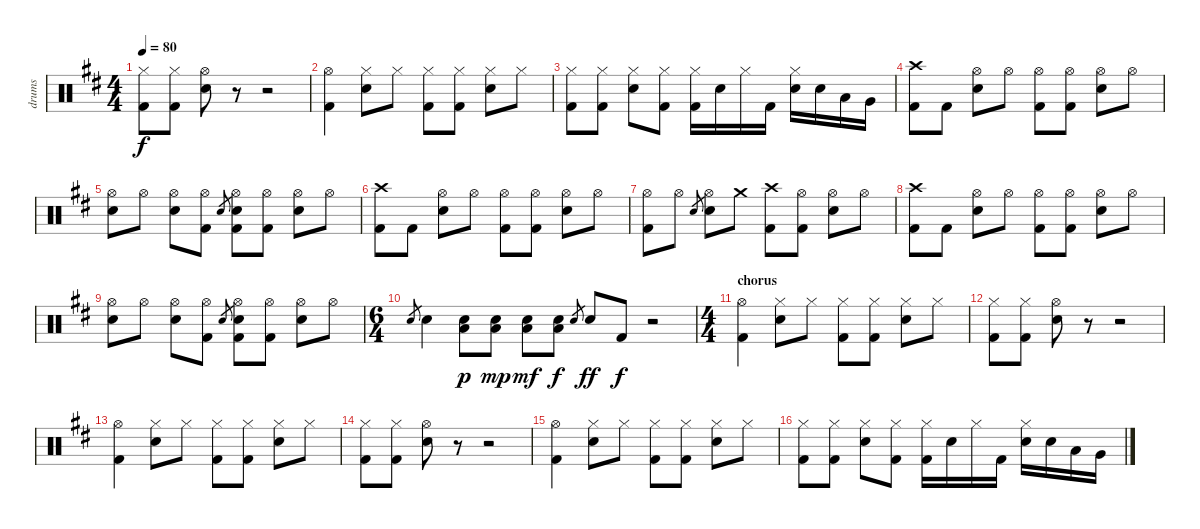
\track ("drums" "drums") {instrument percussion}
\staff {score}
\articulation defaults
\ts (4 4)
\tempo 80
\clef neutral
\ks bminor
("Hi-Hat (closed)" "Kick (hit) 2").8{dy f} ("Hi-Hat (closed)" "Kick (hit) 2").8 ("Hi-Hat (open)" "Electric Snare (hit)").8 r.8 r.2 |
("Hi-Hat (open)" "Kick (hit) 2").4 ("Hi-Hat (closed)" "Electric Snare (hit)").8 "Hi-Hat (closed)".8 ("Hi-Hat (closed)" "Kick (hit) 2").8 ("Hi-Hat (closed)" "Kick (hit) 2").8 ("Hi-Hat (closed)" "Electric Snare (hit)").8 "Hi-Hat (closed)".8 |
("Hi-Hat (closed)" "Kick (hit) 2").8 ("Hi-Hat (closed)" "Kick (hit) 2").8 ("Hi-Hat (closed)" "Electric Snare (hit)").8 ("Hi-Hat (closed)" "Kick (hit) 2").8 ("Hi-Hat (closed)" "Kick (hit) 2").16 "Electric Snare (hit)".16 "Hi-Hat (closed)".16 "Kick (hit) 2".16 ("Hi-Hat (closed)" "Electric Snare (hit)").16 "Electric Snare (hit)".16 "Low Tom (hit)".16 "Very Low Tom (hit)".16 |
("Crash high (hit)" "Kick (hit) 2").8 "Kick (hit) 2".8 ("Hi-Hat (open)" "Electric Snare (hit)").8 "Hi-Hat (open)".8 ("Hi-Hat (open)" "Kick (hit) 2").8 ("Hi-Hat (open)" "Kick (hit) 2").8 ("Hi-Hat (open)" "Electric Snare (hit)").8 "Hi-Hat (open)".8 |
("Hi-Hat (open)" "Electric Snare (hit)").8 "Hi-Hat (open)".8 ("Hi-Hat (open)" "Electric Snare (hit)").8 ("Hi-Hat (open)" "Kick (hit) 2").8 "Electric Snare (hit)".8{gr} ("Hi-Hat (open)" "Electric Snare (hit)" "Kick (hit) 2").8 ("Hi-Hat (open)" "Kick (hit) 2").8 ("Hi-Hat (open)" "Electric Snare (hit)").8 "Hi-Hat (open)".8 |
("Crash high (hit)" "Kick (hit) 2").8 "Kick (hit) 2".8 ("Hi-Hat (open)" "Electric Snare (hit)").8 "Hi-Hat (open)".8 ("Hi-Hat (open)" "Kick (hit) 2").8 ("Hi-Hat (open)" "Kick (hit) 2").8 ("Hi-Hat (open)" "Electric Snare (hit)").8 "Hi-Hat (open)".8 |
("Hi-Hat (open)" "Kick (hit) 2").8 "Hi-Hat (open)".8 "Electric Snare (hit)".8{gr} ("Hi-Hat (open)" "Electric Snare (hit)").8 "Crash medium (hit)".8 ("Crash high (hit)" "Kick (hit) 2").8 ("Hi-Hat (open)" "Kick (hit) 2").8 ("Hi-Hat (open)" "Electric Snare (hit)").8 "Hi-Hat (open)".8 |
("Crash high (hit)" "Kick (hit) 2").8 "Kick (hit) 2".8 ("Hi-Hat (open)" "Electric Snare (hit)").8 "Hi-Hat (open)".8 ("Hi-Hat (open)" "Kick (hit) 2").8 ("Hi-Hat (open)" "Kick (hit) 2").8 ("Hi-Hat (open)" "Electric Snare (hit)").8 "Hi-Hat (open)".8 |
("Hi-Hat (open)" "Electric Snare (hit)").8 "Hi-Hat (open)".8 ("Hi-Hat (open)" "Electric Snare (hit)").8 ("Hi-Hat (open)" "Kick (hit) 2").8 "Electric Snare (hit)".8{gr} ("Hi-Hat (open)" "Electric Snare (hit)" "Kick (hit) 2").8 ("Hi-Hat (open)" "Kick (hit) 2").8 ("Hi-Hat (open)" "Electric Snare (hit)").8 "Hi-Hat (open)".8 |
\ts (6 4)
"Electric Snare (hit)".8{gr} "Electric Snare (hit)".4 ("Low Floor Tom (hit)" "Electric Snare (hit)").8{dy p} ("Low Floor Tom (hit)" "Electric Snare (hit)").8{dy mp} ("Low Floor Tom (hit)" "Electric Snare (hit)").8{dy mf} ("Low Floor Tom (hit)" "Electric Snare (hit)").8{dy f} "Electric Snare (hit)".8{gr} "Electric Snare (hit)".8{dy ff} "Kick (hit) 2".8{dy f} r.2 |
\ts (4 4)
\section ("" "chorus")
("Hi-Hat (open)" "Kick (hit) 2").4 ("Hi-Hat (closed)" "Electric Snare (hit)").8 "Hi-Hat (closed)".8 ("Hi-Hat (closed)" "Kick (hit) 2").8 ("Hi-Hat (closed)" "Kick (hit) 2").8 ("Hi-Hat (closed)" "Electric Snare (hit)").8 "Hi-Hat (closed)".8 |
("Hi-Hat (closed)" "Kick (hit) 2").8 ("Hi-Hat (closed)" "Kick (hit) 2").8 ("Hi-Hat (open)" "Electric Snare (hit)").8 r.8 r.2 |
("Hi-Hat (open)" "Kick (hit) 2").4 ("Hi-Hat (closed)" "Electric Snare (hit)").8 "Hi-Hat (closed)".8 ("Hi-Hat (closed)" "Kick (hit) 2").8 ("Hi-Hat (closed)" "Kick (hit) 2").8 ("Hi-Hat (closed)" "Electric Snare (hit)").8 "Hi-Hat (closed)".8 |
("Hi-Hat (closed)" "Kick (hit) 2").8 ("Hi-Hat (closed)" "Kick (hit) 2").8 ("Hi-Hat (open)" "Electric Snare (hit)").8 r.8 r.2 |
("Hi-Hat (open)" "Kick (hit) 2").4 ("Hi-Hat (closed)" "Electric Snare (hit)").8 "Hi-Hat (closed)".8 ("Hi-Hat (closed)" "Kick (hit) 2").8 ("Hi-Hat (closed)" "Kick (hit) 2").8 ("Hi-Hat (closed)" "Electric Snare (hit)").8 "Hi-Hat (closed)".8 |
("Hi-Hat (closed)" "Kick (hit) 2").8 ("Hi-Hat (closed)" "Kick (hit) 2").8 ("Hi-Hat (closed)" "Electric Snare (hit)").8 ("Hi-Hat (closed)" "Kick (hit) 2").8 ("Hi-Hat (closed)" "Kick (hit) 2").16 "Electric Snare (hit)".16 "Hi-Hat (closed)".16 "Kick (hit) 2".16 ("Hi-Hat (closed)" "Electric Snare (hit)").16 "Electric Snare (hit)".16 "Low Tom (hit)".16 "Very Low Tom (hit)".16
